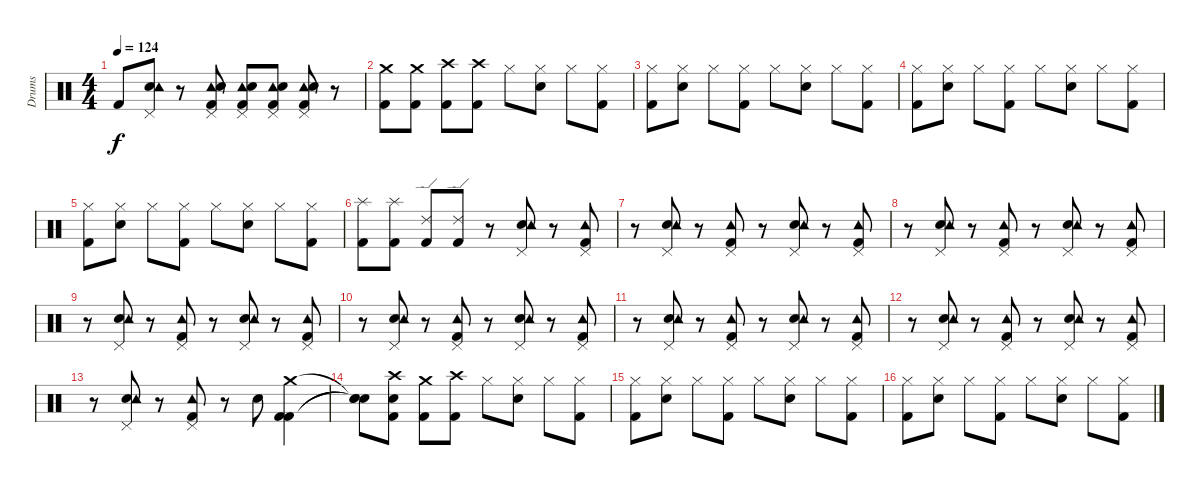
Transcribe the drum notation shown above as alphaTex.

\track ("Drums" "Drums") {instrument percussion}
\staff {score}
\articulation defaults
\ts (4 4)
\tempo 124
\clef neutral
\ks c "Kick (hit) 2".8{dy f}
("Snare (hit) 2" "Tambourine (hit)" "Pedal Hi-Hat (hit)").8 r.8 ("Kick (hit) 2" "Tambourine (hit)" "Pedal Hi-Hat (hit)" "Snare (hit) 2").8 ("Kick (hit) 2" "Tambourine (hit)" "Pedal Hi-Hat (hit)" "Snare (hit) 2").8 ("Kick (hit) 2" "Tambourine (hit)" "Pedal Hi-Hat (hit)" "Snare (hit) 2").8 ("Kick (hit) 2" "Tambourine (hit)" "Pedal Hi-Hat (hit)" "Snare (hit) 2").8 r.8 |
("Crash medium (hit)" "Kick (hit) 2").8 ("Crash medium (hit)" "Kick (hit) 2").8 ("Crash high (hit)" "Kick (hit) 2").8 ("Crash high (hit)" "Kick (hit) 2").8 "Hi-Hat (closed)".8 ("Snare (hit) 2" "Hi-Hat (closed)").8 "Hi-Hat (closed)".8 ("Kick (hit) 2" "Hi-Hat (closed)").8 |
("Kick (hit) 2" "Hi-Hat (closed)").8 ("Snare (hit) 2" "Hi-Hat (closed)").8 "Hi-Hat (closed)".8 ("Kick (hit) 2" "Hi-Hat (closed)").8 "Hi-Hat (closed)".8 ("Snare (hit) 2" "Hi-Hat (closed)").8 "Hi-Hat (closed)".8 ("Kick (hit) 2" "Hi-Hat (closed)").8 |
("Kick (hit) 2" "Hi-Hat (closed)").8 ("Snare (hit) 2" "Hi-Hat (closed)").8 "Hi-Hat (closed)".8 ("Kick (hit) 2" "Hi-Hat (closed)").8 "Hi-Hat (closed)".8 ("Snare (hit) 2" "Hi-Hat (closed)").8 "Hi-Hat (closed)".8 ("Kick (hit) 2" "Hi-Hat (closed)").8 |
("Kick (hit) 2" "Hi-Hat (closed)").8 ("Snare (hit) 2" "Hi-Hat (closed)").8 "Hi-Hat (closed)".8 ("Kick (hit) 2" "Hi-Hat (closed)").8 "Hi-Hat (closed)".8 ("Snare (hit) 2" "Hi-Hat (closed)").8 "Hi-Hat (closed)".8 ("Kick (hit) 2" "Hi-Hat (closed)").8 |
("Splash (hit)" "Kick (hit) 2").8 ("Splash (hit)" "Kick (hit) 2").8 ("Ride (edge) 2" "Kick (hit) 2").8 ("Ride (edge) 2" "Kick (hit) 2").8 r.8 ("Snare (hit) 2" "Tambourine (hit)" "Pedal Hi-Hat (hit)").8 r.8 ("Kick (hit) 2" "Tambourine (hit)" "Pedal Hi-Hat (hit)").8 |
r.8 ("Snare (hit) 2" "Tambourine (hit)" "Pedal Hi-Hat (hit)").8 r.8 ("Kick (hit) 2" "Tambourine (hit)" "Pedal Hi-Hat (hit)").8 r.8 ("Snare (hit) 2" "Tambourine (hit)" "Pedal Hi-Hat (hit)").8 r.8 ("Kick (hit) 2" "Tambourine (hit)" "Pedal Hi-Hat (hit)").8 |
r.8 ("Snare (hit) 2" "Tambourine (hit)" "Pedal Hi-Hat (hit)").8 r.8 ("Kick (hit) 2" "Tambourine (hit)" "Pedal Hi-Hat (hit)").8 r.8 ("Snare (hit) 2" "Tambourine (hit)" "Pedal Hi-Hat (hit)").8 r.8 ("Kick (hit) 2" "Tambourine (hit)" "Pedal Hi-Hat (hit)").8 |
r.8 ("Snare (hit) 2" "Tambourine (hit)" "Pedal Hi-Hat (hit)").8 r.8 ("Kick (hit) 2" "Tambourine (hit)" "Pedal Hi-Hat (hit)").8 r.8 ("Snare (hit) 2" "Tambourine (hit)" "Pedal Hi-Hat (hit)").8 r.8 ("Kick (hit) 2" "Tambourine (hit)" "Pedal Hi-Hat (hit)").8 |
r.8 ("Snare (hit) 2" "Tambourine (hit)" "Pedal Hi-Hat (hit)").8 r.8 ("Kick (hit) 2" "Tambourine (hit)" "Pedal Hi-Hat (hit)").8 r.8 ("Snare (hit) 2" "Tambourine (hit)" "Pedal Hi-Hat (hit)").8 r.8 ("Kick (hit) 2" "Tambourine (hit)" "Pedal Hi-Hat (hit)").8 |
r.8 ("Snare (hit) 2" "Tambourine (hit)" "Pedal Hi-Hat (hit)").8 r.8 ("Kick (hit) 2" "Tambourine (hit)" "Pedal Hi-Hat (hit)").8 r.8 ("Snare (hit) 2" "Tambourine (hit)" "Pedal Hi-Hat (hit)").8 r.8 ("Kick (hit) 2" "Tambourine (hit)" "Pedal Hi-Hat (hit)").8 |
r.8 ("Snare (hit) 2" "Tambourine (hit)" "Pedal Hi-Hat (hit)").8 r.8 ("Kick (hit) 2" "Tambourine (hit)" "Pedal Hi-Hat (hit)").8 r.8 ("Snare (hit) 2" "Tambourine (hit)" "Pedal Hi-Hat (hit)").8 r.8 ("Kick (hit) 2" "Tambourine (hit)" "Pedal Hi-Hat (hit)").8 |
r.8 ("Snare (hit) 2" "Tambourine (hit)" "Pedal Hi-Hat (hit)").8 r.8 ("Kick (hit) 2" "Tambourine (hit)" "Pedal Hi-Hat (hit)").8 r.8 "Snare (hit) 2".8 ("Kick (hit) 2" "Crash medium (hit)" "Kick (hit) 2").4 |
("Snare (hit)"{t} "Snare (hit)"{t} "Snare (hit)"{t}).8 ("Kick (hit) 2" "Crash high (hit)" "Snare (hit) 2").8 ("Kick (hit) 2" "Crash medium (hit)").8 ("Kick (hit) 2" "Crash high (hit)").8 "Hi-Hat (closed)".8 ("Snare (hit) 2" "Hi-Hat (closed)").8 "Hi-Hat (closed)".8 ("Kick (hit) 2" "Hi-Hat (closed)").8 |
("Kick (hit) 2" "Hi-Hat (closed)").8 ("Snare (hit) 2" "Hi-Hat (closed)").8 "Hi-Hat (closed)".8 ("Kick (hit) 2" "Hi-Hat (closed)").8 "Hi-Hat (closed)".8 ("Snare (hit) 2" "Hi-Hat (closed)").8 "Hi-Hat (closed)".8 ("Kick (hit) 2" "Hi-Hat (closed)").8 |
("Kick (hit) 2" "Hi-Hat (closed)").8 ("Snare (hit) 2" "Hi-Hat (closed)").8 "Hi-Hat (closed)".8 ("Kick (hit) 2" "Hi-Hat (closed)").8 "Hi-Hat (closed)".8 ("Snare (hit) 2" "Hi-Hat (closed)").8 "Hi-Hat (closed)".8 ("Kick (hit) 2" "Hi-Hat (closed)").8
